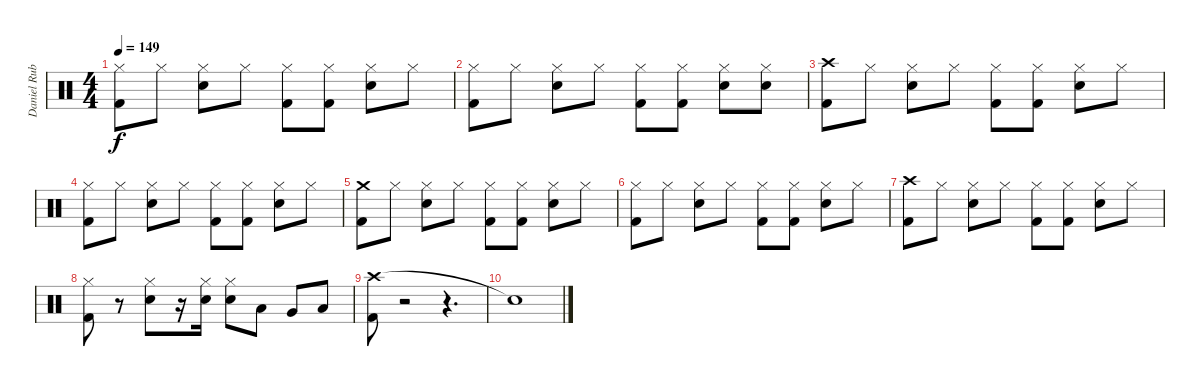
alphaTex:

\track ("Daniel Rubiano" "Daniel Rub") {instrument percussion}
\staff {score}
\articulation defaults
\ts (4 4)
\tempo 149
\clef neutral
\ks c
("Hi-Hat (closed)" "Kick (hit) 2").8{dy f} "Hi-Hat (closed)".8 ("Hi-Hat (closed)" "Snare (hit) 2").8 "Hi-Hat (closed)".8 ("Hi-Hat (closed)" "Kick (hit) 2").8 ("Hi-Hat (closed)" "Kick (hit) 2").8 ("Hi-Hat (closed)" "Snare (hit) 2").8 "Hi-Hat (closed)".8 |
("Hi-Hat (closed)" "Kick (hit) 2").8 "Hi-Hat (closed)".8 ("Hi-Hat (closed)" "Snare (hit) 2").8 "Hi-Hat (closed)".8 ("Hi-Hat (closed)" "Kick (hit) 2").8 ("Hi-Hat (closed)" "Kick (hit) 2").8 ("Hi-Hat (closed)" "Snare (hit) 2").8 ("Hi-Hat (closed)" "Snare (hit) 2").8 |
("Crash high (hit)" "Kick (hit) 2").8 "Hi-Hat (closed)".8 ("Hi-Hat (closed)" "Snare (hit) 2").8 "Hi-Hat (closed)".8 ("Hi-Hat (closed)" "Kick (hit) 2").8 ("Hi-Hat (closed)" "Kick (hit) 2").8 ("Hi-Hat (closed)" "Snare (hit) 2").8 "Hi-Hat (closed)".8 |
("Hi-Hat (closed)" "Kick (hit) 2").8 "Hi-Hat (closed)".8 ("Hi-Hat (closed)" "Snare (hit) 2").8 "Hi-Hat (closed)".8 ("Hi-Hat (closed)" "Kick (hit) 2").8 ("Hi-Hat (closed)" "Kick (hit) 2").8 ("Hi-Hat (closed)" "Snare (hit) 2").8 "Hi-Hat (closed)".8 |
("Crash medium (hit)" "Kick (hit) 2").8 "Hi-Hat (closed)".8 ("Hi-Hat (closed)" "Snare (hit) 2").8 "Hi-Hat (closed)".8 ("Hi-Hat (closed)" "Kick (hit) 2").8 ("Hi-Hat (closed)" "Kick (hit) 2").8 ("Hi-Hat (closed)" "Snare (hit) 2").8 "Hi-Hat (closed)".8 |
("Hi-Hat (closed)" "Kick (hit) 2").8 "Hi-Hat (closed)".8 ("Hi-Hat (closed)" "Snare (hit) 2").8 "Hi-Hat (closed)".8 ("Hi-Hat (closed)" "Kick (hit) 2").8 ("Hi-Hat (closed)" "Kick (hit) 2").8 ("Hi-Hat (closed)" "Snare (hit) 2").8 "Hi-Hat (closed)".8 |
("Crash high (hit)" "Kick (hit) 2").8 "Hi-Hat (closed)".8 ("Hi-Hat (closed)" "Snare (hit) 2").8 "Hi-Hat (closed)".8 ("Hi-Hat (closed)" "Kick (hit) 2").8 ("Hi-Hat (closed)" "Kick (hit) 2").8 ("Hi-Hat (closed)" "Snare (hit) 2").8 "Hi-Hat (closed)".8 |
("Hi-Hat (closed)" "Kick (hit) 2").8 r.8 ("Hi-Hat (closed)" "Snare (hit) 2").8 r.16 ("Hi-Hat (closed)" "Snare (hit) 2").16 ("Hi-Hat (closed)" "Snare (hit) 2").8 "Low Tom (hit)".8 "Very Low Tom (hit)".8 "Low Floor Tom (hit)".8 |
("Crash high (hit)" "Kick (hit) 2").8 r.2 r.4{d} |
"Snare (hit)"{t}.1
